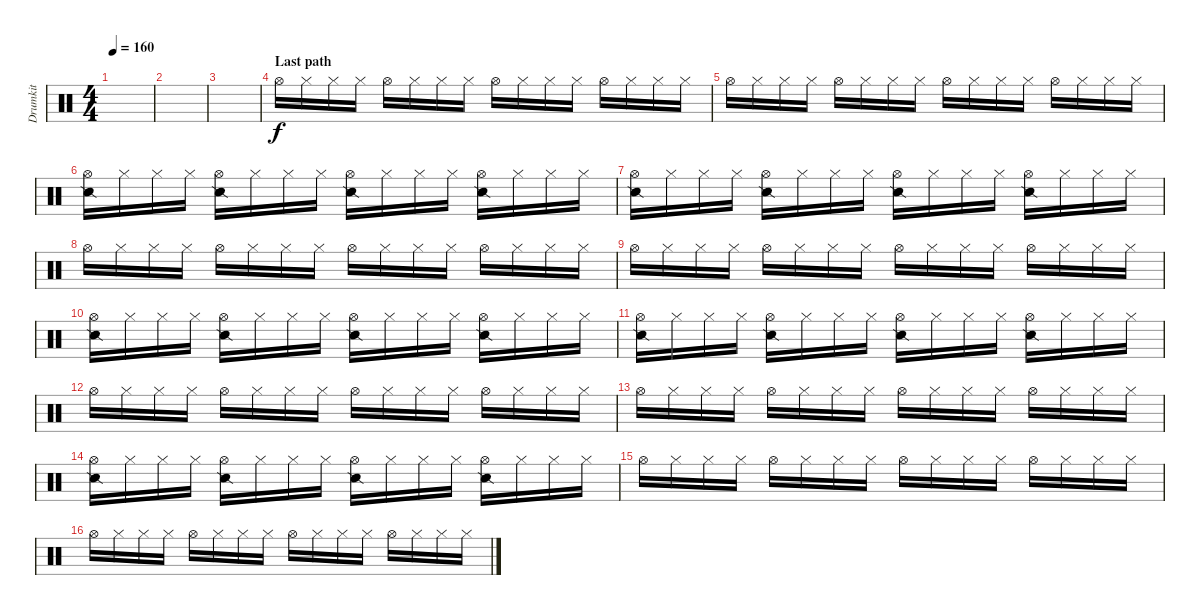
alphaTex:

\track ("Drumkit" "Drumkit") {instrument percussion}
\staff {score}
\articulation defaults
\ts (4 4)
\tempo 160
\clef neutral
\ks c
|
|
|
\section ("" "Last path")
"Hi-Hat (open)".16 "Hi-Hat (closed)".16 "Hi-Hat (closed)".16 "Hi-Hat (closed)".16 "Hi-Hat (open)".16 "Hi-Hat (closed)".16 "Hi-Hat (closed)".16 "Hi-Hat (closed)".16 "Hi-Hat (open)".16 "Hi-Hat (closed)".16 "Hi-Hat (closed)".16 "Hi-Hat (closed)".16 "Hi-Hat (open)".16 "Hi-Hat (closed)".16 "Hi-Hat (closed)".16 "Hi-Hat (closed)".16 |
"Hi-Hat (open)".16 "Hi-Hat (closed)".16 "Hi-Hat (closed)".16 "Hi-Hat (closed)".16 "Hi-Hat (open)".16 "Hi-Hat (closed)".16 "Hi-Hat (closed)".16 "Hi-Hat (closed)".16 "Hi-Hat (open)".16 "Hi-Hat (closed)".16 "Hi-Hat (closed)".16 "Hi-Hat (closed)".16 "Hi-Hat (open)".16 "Hi-Hat (closed)".16 "Hi-Hat (closed)".16 "Hi-Hat (closed)".16 |
("Hi-Hat (open)" "Snare (side stick) 2").16 "Hi-Hat (closed)".16 "Hi-Hat (closed)".16 "Hi-Hat (closed)".16 ("Hi-Hat (open)" "Snare (side stick) 2").16 "Hi-Hat (closed)".16 "Hi-Hat (closed)".16 "Hi-Hat (closed)".16 ("Hi-Hat (open)" "Snare (side stick) 2").16 "Hi-Hat (closed)".16 "Hi-Hat (closed)".16 "Hi-Hat (closed)".16 ("Hi-Hat (open)" "Snare (side stick) 2").16 "Hi-Hat (closed)".16 "Hi-Hat (closed)".16 "Hi-Hat (closed)".16 |
("Hi-Hat (open)" "Snare (side stick) 2").16 "Hi-Hat (closed)".16 "Hi-Hat (closed)".16 "Hi-Hat (closed)".16 ("Hi-Hat (open)" "Snare (side stick) 2").16 "Hi-Hat (closed)".16 "Hi-Hat (closed)".16 "Hi-Hat (closed)".16 ("Hi-Hat (open)" "Snare (side stick) 2").16 "Hi-Hat (closed)".16 "Hi-Hat (closed)".16 "Hi-Hat (closed)".16 ("Hi-Hat (open)" "Snare (side stick) 2").16 "Hi-Hat (closed)".16 "Hi-Hat (closed)".16 "Hi-Hat (closed)".16 |
"Hi-Hat (open)".16 "Hi-Hat (closed)".16 "Hi-Hat (closed)".16 "Hi-Hat (closed)".16 "Hi-Hat (open)".16 "Hi-Hat (closed)".16 "Hi-Hat (closed)".16 "Hi-Hat (closed)".16 "Hi-Hat (open)".16 "Hi-Hat (closed)".16 "Hi-Hat (closed)".16 "Hi-Hat (closed)".16 "Hi-Hat (open)".16 "Hi-Hat (closed)".16 "Hi-Hat (closed)".16 "Hi-Hat (closed)".16 |
"Hi-Hat (open)".16 "Hi-Hat (closed)".16 "Hi-Hat (closed)".16 "Hi-Hat (closed)".16 "Hi-Hat (open)".16 "Hi-Hat (closed)".16 "Hi-Hat (closed)".16 "Hi-Hat (closed)".16 "Hi-Hat (open)".16 "Hi-Hat (closed)".16 "Hi-Hat (closed)".16 "Hi-Hat (closed)".16 "Hi-Hat (open)".16 "Hi-Hat (closed)".16 "Hi-Hat (closed)".16 "Hi-Hat (closed)".16 |
("Hi-Hat (open)" "Snare (side stick) 2").16 "Hi-Hat (closed)".16 "Hi-Hat (closed)".16 "Hi-Hat (closed)".16 ("Hi-Hat (open)" "Snare (side stick) 2").16 "Hi-Hat (closed)".16 "Hi-Hat (closed)".16 "Hi-Hat (closed)".16 ("Hi-Hat (open)" "Snare (side stick) 2").16 "Hi-Hat (closed)".16 "Hi-Hat (closed)".16 "Hi-Hat (closed)".16 ("Hi-Hat (open)" "Snare (side stick) 2").16 "Hi-Hat (closed)".16 "Hi-Hat (closed)".16 "Hi-Hat (closed)".16 |
("Hi-Hat (open)" "Snare (side stick) 2").16 "Hi-Hat (closed)".16 "Hi-Hat (closed)".16 "Hi-Hat (closed)".16 ("Hi-Hat (open)" "Snare (side stick) 2").16 "Hi-Hat (closed)".16 "Hi-Hat (closed)".16 "Hi-Hat (closed)".16 ("Hi-Hat (open)" "Snare (side stick) 2").16 "Hi-Hat (closed)".16 "Hi-Hat (closed)".16 "Hi-Hat (closed)".16 ("Hi-Hat (open)" "Snare (side stick) 2").16 "Hi-Hat (closed)".16 "Hi-Hat (closed)".16 "Hi-Hat (closed)".16 |
"Hi-Hat (open)".16 "Hi-Hat (closed)".16 "Hi-Hat (closed)".16 "Hi-Hat (closed)".16 "Hi-Hat (open)".16 "Hi-Hat (closed)".16 "Hi-Hat (closed)".16 "Hi-Hat (closed)".16 "Hi-Hat (open)".16 "Hi-Hat (closed)".16 "Hi-Hat (closed)".16 "Hi-Hat (closed)".16 "Hi-Hat (open)".16 "Hi-Hat (closed)".16 "Hi-Hat (closed)".16 "Hi-Hat (closed)".16 |
"Hi-Hat (open)".16 "Hi-Hat (closed)".16 "Hi-Hat (closed)".16 "Hi-Hat (closed)".16 "Hi-Hat (open)".16 "Hi-Hat (closed)".16 "Hi-Hat (closed)".16 "Hi-Hat (closed)".16 "Hi-Hat (open)".16 "Hi-Hat (closed)".16 "Hi-Hat (closed)".16 "Hi-Hat (closed)".16 "Hi-Hat (open)".16 "Hi-Hat (closed)".16 "Hi-Hat (closed)".16 "Hi-Hat (closed)".16 |
("Hi-Hat (open)" "Snare (side stick) 2").16 "Hi-Hat (closed)".16 "Hi-Hat (closed)".16 "Hi-Hat (closed)".16 ("Hi-Hat (open)" "Snare (side stick) 2").16 "Hi-Hat (closed)".16 "Hi-Hat (closed)".16 "Hi-Hat (closed)".16 ("Hi-Hat (open)" "Snare (side stick) 2").16 "Hi-Hat (closed)".16 "Hi-Hat (closed)".16 "Hi-Hat (closed)".16 ("Hi-Hat (open)" "Snare (side stick) 2").16 "Hi-Hat (closed)".16 "Hi-Hat (closed)".16 "Hi-Hat (closed)".16 |
"Hi-Hat (open)".16 "Hi-Hat (closed)".16 "Hi-Hat (closed)".16 "Hi-Hat (closed)".16 "Hi-Hat (open)".16 "Hi-Hat (closed)".16 "Hi-Hat (closed)".16 "Hi-Hat (closed)".16 "Hi-Hat (open)".16 "Hi-Hat (closed)".16 "Hi-Hat (closed)".16 "Hi-Hat (closed)".16 "Hi-Hat (open)".16 "Hi-Hat (closed)".16 "Hi-Hat (closed)".16 "Hi-Hat (closed)".16 |
"Hi-Hat (open)".16 "Hi-Hat (closed)".16 "Hi-Hat (closed)".16 "Hi-Hat (closed)".16 "Hi-Hat (open)".16 "Hi-Hat (closed)".16 "Hi-Hat (closed)".16 "Hi-Hat (closed)".16 "Hi-Hat (open)".16 "Hi-Hat (closed)".16 "Hi-Hat (closed)".16 "Hi-Hat (closed)".16 "Hi-Hat (open)".16 "Hi-Hat (closed)".16 "Hi-Hat (closed)".16 "Hi-Hat (closed)".16
